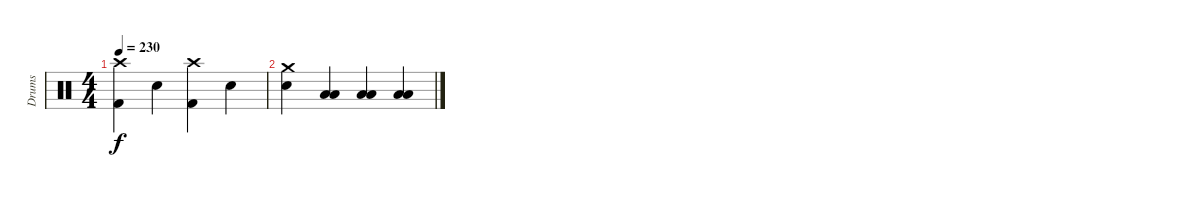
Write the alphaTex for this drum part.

\track ("Drums" "Drums") {instrument percussion}
\staff {score}
\articulation defaults
\ts (4 4)
\tempo 230
\clef neutral
\ks c
("Kick (hit) 2" "Crash high (hit)").4{dy f} "Electric Snare (hit)".4 ("Kick (hit) 2" "Crash high (hit)").4 "Electric Snare (hit)".4 |
("Crash medium (hit)" "Electric Snare (hit)").4 ("Low Tom (hit)" "Low Floor Tom (hit)").4 ("Low Tom (hit)" "Low Floor Tom (hit)").4 ("Low Tom (hit)" "Low Floor Tom (hit)").4
